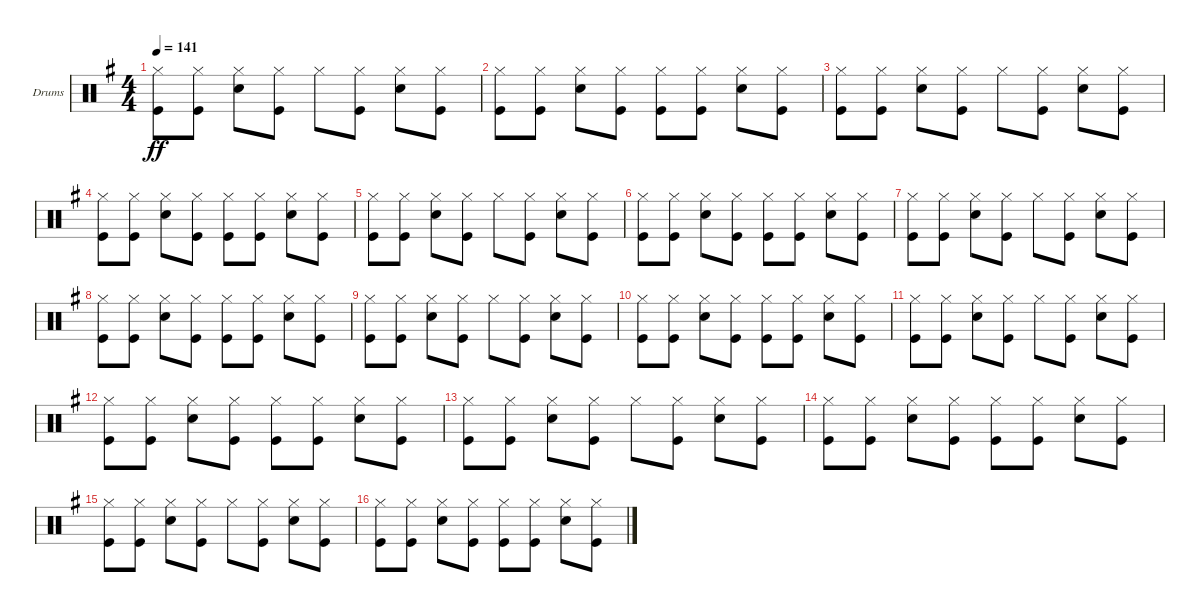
\defaultSystemsLayout 4
\bracketExtendMode groupsimilarinstruments
\firstSystemTrackNameOrientation horizontal
\otherSystemsTrackNameOrientation horizontal
\track ("Drumkit" "Drums") {instrument percussion}
\staff {score}
\articulation defaults
\ts (4 4)
\tempo 141
\clef neutral
\scale
0.333333
\ks g
("Kick (hit)" "Hi-Hat (closed)").8{dy ff} ("Kick (hit)" "Hi-Hat (closed)").8 ("Snare (hit) 2" "Hi-Hat (closed)").8 ("Hi-Hat (closed)" "Kick (hit)").8 "Hi-Hat (closed)".8 ("Kick (hit)" "Hi-Hat (closed)").8 ("Snare (hit) 2" "Hi-Hat (closed)").8 ("Kick (hit)" "Hi-Hat (closed)").8 |
\scale
0.333333 ("Kick (hit)" "Hi-Hat (closed)").8 ("Kick (hit)" "Hi-Hat (closed)").8 ("Snare (hit) 2" "Hi-Hat (closed)").8 ("Kick (hit)" "Hi-Hat (closed)").8 ("Kick (hit)" "Hi-Hat (closed)").8 ("Kick (hit)" "Hi-Hat (closed)").8 ("Snare (hit) 2" "Hi-Hat (closed)").8 ("Kick (hit)" "Hi-Hat (closed)").8 |
\scale
0.333333 ("Kick (hit)" "Hi-Hat (closed)").8 ("Kick (hit)" "Hi-Hat (closed)").8 ("Snare (hit) 2" "Hi-Hat (closed)").8 ("Kick (hit)" "Hi-Hat (closed)").8 "Hi-Hat (closed)".8 ("Kick (hit)" "Hi-Hat (closed)").8 ("Snare (hit) 2" "Hi-Hat (closed)").8 ("Kick (hit)" "Hi-Hat (closed)").8 |
\scale
0.333333 ("Kick (hit)" "Hi-Hat (closed)").8 ("Kick (hit)" "Hi-Hat (closed)").8 ("Snare (hit) 2" "Hi-Hat (closed)").8 ("Kick (hit)" "Hi-Hat (closed)").8 ("Kick (hit)" "Hi-Hat (closed)").8 ("Kick (hit)" "Hi-Hat (closed)").8 ("Snare (hit) 2" "Hi-Hat (closed)").8 ("Kick (hit)" "Hi-Hat (closed)").8 |
\scale
0.333333 ("Kick (hit)" "Hi-Hat (closed)").8 ("Kick (hit)" "Hi-Hat (closed)").8 ("Snare (hit) 2" "Hi-Hat (closed)").8 ("Hi-Hat (closed)" "Kick (hit)").8 "Hi-Hat (closed)".8 ("Kick (hit)" "Hi-Hat (closed)").8 ("Snare (hit) 2" "Hi-Hat (closed)").8 ("Kick (hit)" "Hi-Hat (closed)").8 |
\scale
0.333333 ("Kick (hit)" "Hi-Hat (closed)").8 ("Kick (hit)" "Hi-Hat (closed)").8 ("Snare (hit) 2" "Hi-Hat (closed)").8 ("Kick (hit)" "Hi-Hat (closed)").8 ("Kick (hit)" "Hi-Hat (closed)").8 ("Kick (hit)" "Hi-Hat (closed)").8 ("Snare (hit) 2" "Hi-Hat (closed)").8 ("Kick (hit)" "Hi-Hat (closed)").8 |
\scale
0.333333 ("Kick (hit)" "Hi-Hat (closed)").8 ("Kick (hit)" "Hi-Hat (closed)").8 ("Snare (hit) 2" "Hi-Hat (closed)").8 ("Hi-Hat (closed)" "Kick (hit)").8 "Hi-Hat (closed)".8 ("Kick (hit)" "Hi-Hat (closed)").8 ("Snare (hit) 2" "Hi-Hat (closed)").8 ("Kick (hit)" "Hi-Hat (closed)").8 |
\scale
0.333333 ("Kick (hit)" "Hi-Hat (closed)").8 ("Kick (hit)" "Hi-Hat (closed)").8 ("Snare (hit) 2" "Hi-Hat (closed)").8 ("Kick (hit)" "Hi-Hat (closed)").8 ("Kick (hit)" "Hi-Hat (closed)").8 ("Kick (hit)" "Hi-Hat (closed)").8 ("Snare (hit) 2" "Hi-Hat (closed)").8 ("Kick (hit)" "Hi-Hat (closed)").8 |
\scale
0.333333 ("Kick (hit)" "Hi-Hat (closed)").8 ("Kick (hit)" "Hi-Hat (closed)").8 ("Snare (hit) 2" "Hi-Hat (closed)").8 ("Hi-Hat (closed)" "Kick (hit)").8 "Hi-Hat (closed)".8 ("Kick (hit)" "Hi-Hat (closed)").8 ("Snare (hit) 2" "Hi-Hat (closed)").8 ("Kick (hit)" "Hi-Hat (closed)").8 |
\scale
0.333333 ("Kick (hit)" "Hi-Hat (closed)").8 ("Kick (hit)" "Hi-Hat (closed)").8 ("Snare (hit) 2" "Hi-Hat (closed)").8 ("Kick (hit)" "Hi-Hat (closed)").8 ("Kick (hit)" "Hi-Hat (closed)").8 ("Kick (hit)" "Hi-Hat (closed)").8 ("Snare (hit) 2" "Hi-Hat (closed)").8 ("Kick (hit)" "Hi-Hat (closed)").8 |
\scale
0.333333 ("Kick (hit)" "Hi-Hat (closed)").8 ("Kick (hit)" "Hi-Hat (closed)").8 ("Snare (hit) 2" "Hi-Hat (closed)").8 ("Kick (hit)" "Hi-Hat (closed)").8 "Hi-Hat (closed)".8 ("Kick (hit)" "Hi-Hat (closed)").8 ("Snare (hit) 2" "Hi-Hat (closed)").8 ("Kick (hit)" "Hi-Hat (closed)").8 |
\scale
0.333333 ("Kick (hit)" "Hi-Hat (closed)").8 ("Kick (hit)" "Hi-Hat (closed)").8 ("Snare (hit) 2" "Hi-Hat (closed)").8 ("Kick (hit)" "Hi-Hat (closed)").8 ("Kick (hit)" "Hi-Hat (closed)").8 ("Kick (hit)" "Hi-Hat (closed)").8 ("Snare (hit) 2" "Hi-Hat (closed)").8 ("Kick (hit)" "Hi-Hat (closed)").8 |
\scale
0.333333 ("Kick (hit)" "Hi-Hat (closed)").8 ("Kick (hit)" "Hi-Hat (closed)").8 ("Snare (hit) 2" "Hi-Hat (closed)").8 ("Hi-Hat (closed)" "Kick (hit)").8 "Hi-Hat (closed)".8 ("Kick (hit)" "Hi-Hat (closed)").8 ("Snare (hit) 2" "Hi-Hat (closed)").8 ("Kick (hit)" "Hi-Hat (closed)").8 |
\scale
0.333333 ("Kick (hit)" "Hi-Hat (closed)").8 ("Kick (hit)" "Hi-Hat (closed)").8 ("Snare (hit) 2" "Hi-Hat (closed)").8 ("Kick (hit)" "Hi-Hat (closed)").8 ("Kick (hit)" "Hi-Hat (closed)").8 ("Kick (hit)" "Hi-Hat (closed)").8 ("Snare (hit) 2" "Hi-Hat (closed)").8 ("Kick (hit)" "Hi-Hat (closed)").8 |
\scale
0.333333 ("Kick (hit)" "Hi-Hat (closed)").8 ("Kick (hit)" "Hi-Hat (closed)").8 ("Snare (hit) 2" "Hi-Hat (closed)").8 ("Hi-Hat (closed)" "Kick (hit)").8 "Hi-Hat (closed)".8 ("Kick (hit)" "Hi-Hat (closed)").8 ("Snare (hit) 2" "Hi-Hat (closed)").8 ("Kick (hit)" "Hi-Hat (closed)").8 |
\scale
0.333333 ("Kick (hit)" "Hi-Hat (closed)").8 ("Kick (hit)" "Hi-Hat (closed)").8 ("Snare (hit) 2" "Hi-Hat (closed)").8 ("Kick (hit)" "Hi-Hat (closed)").8 ("Kick (hit)" "Hi-Hat (closed)").8 ("Kick (hit)" "Hi-Hat (closed)").8 ("Snare (hit) 2" "Hi-Hat (closed)").8 ("Kick (hit)" "Hi-Hat (closed)").8
